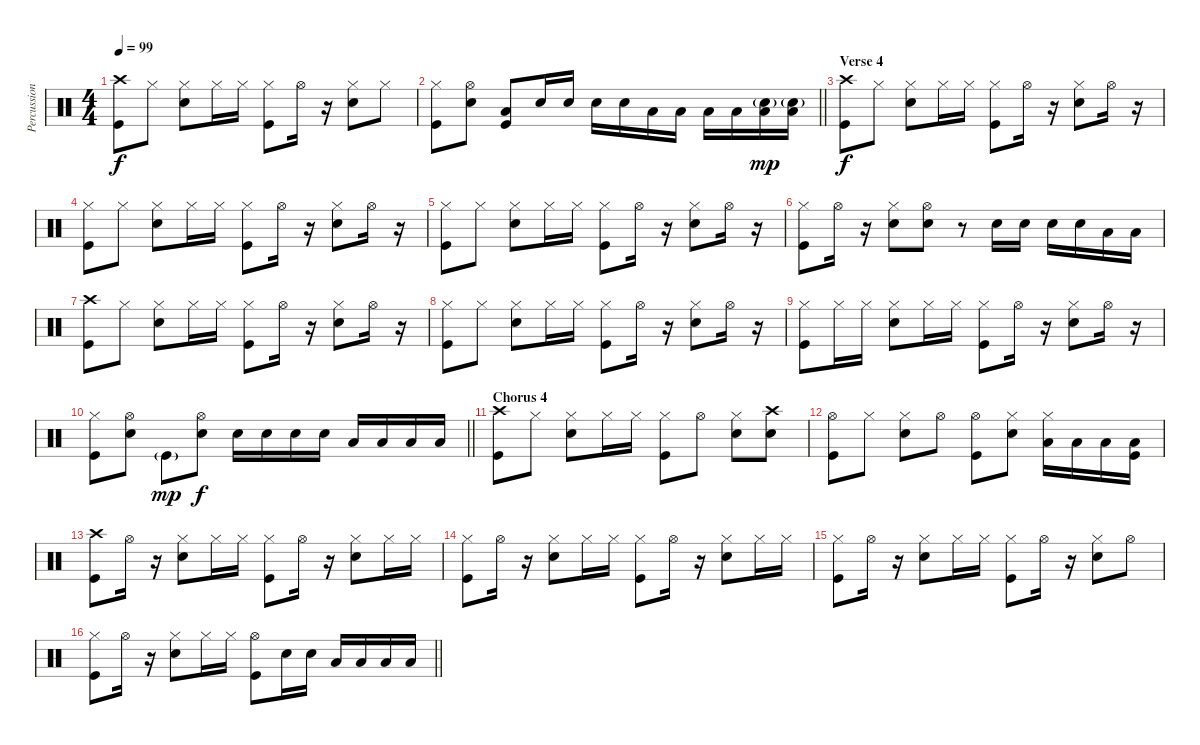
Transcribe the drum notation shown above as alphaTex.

\track ("Percussion" "Percussion") {instrument percussion}
\staff {score}
\articulation defaults
\ts (4 4)
\tempo 99
\clef neutral
\ks c
("Crash high (hit)" "Kick (hit)").8{dy f} "Hi-Hat (closed)".8 ("Hi-Hat (closed)" "Snare (hit) 2").8 "Hi-Hat (closed)".16 "Hi-Hat (closed)".16 ("Hi-Hat (closed)" "Kick (hit)").8 "Hi-Hat (open)".16 r.16 ("Hi-Hat (closed)" "Snare (hit) 2").8 "Hi-Hat (closed)".8 |
\barLineRight lightlight
("Hi-Hat (closed)" "Kick (hit)").8 ("Hi-Hat (open)" "Snare (hit) 2").8 ("Low Tom (hit)" "Kick (hit)").8 "Snare (hit) 2".16 "Snare (hit) 2".16 "Snare (hit) 2".16 "Snare (hit) 2".16 "Low Tom (hit)".16 "Low Tom (hit)".16 "Low Tom (hit)".16 "Low Tom (hit)".16 ("Low Tom (hit)" "Snare (hit) 2"{g}).16{dy mp} ("Low Tom (hit)" "Snare (hit) 2"{g}).16 |
\section ("" "Verse 4")
("Crash high (hit)" "Kick (hit)").8{dy f} "Hi-Hat (closed)".8 ("Hi-Hat (closed)" "Snare (hit) 2").8 "Hi-Hat (closed)".16 "Hi-Hat (closed)".16 ("Hi-Hat (closed)" "Kick (hit)").8 "Hi-Hat (open)".16 r.16 ("Hi-Hat (closed)" "Snare (hit) 2").8 "Hi-Hat (open)".16 r.16 |
("Hi-Hat (closed)" "Kick (hit)").8 "Hi-Hat (closed)".8 ("Hi-Hat (closed)" "Snare (hit) 2").8 "Hi-Hat (closed)".16 "Hi-Hat (closed)".16 ("Hi-Hat (closed)" "Kick (hit)").8 "Hi-Hat (open)".16 r.16 ("Hi-Hat (closed)" "Snare (hit) 2").8 "Hi-Hat (open)".16 r.16 |
("Hi-Hat (closed)" "Kick (hit)").8 "Hi-Hat (closed)".8 ("Hi-Hat (closed)" "Snare (hit) 2").8 "Hi-Hat (closed)".16 "Hi-Hat (closed)".16 ("Hi-Hat (closed)" "Kick (hit)").8 "Hi-Hat (open)".16 r.16 ("Hi-Hat (closed)" "Snare (hit) 2").8 "Hi-Hat (open)".16 r.16 |
("Hi-Hat (closed)" "Kick (hit)").8 "Hi-Hat (open)".16 r.16 ("Hi-Hat (closed)" "Snare (hit) 2").8 ("Hi-Hat (open)" "Snare (hit) 2").8 r.8 "Snare (hit) 2".16 "Snare (hit) 2".16 "Snare (hit) 2".16 "Snare (hit) 2".16 "Low Tom (hit)".16 "Low Tom (hit)".16 |
("Crash high (hit)" "Kick (hit)").8 "Hi-Hat (closed)".8 ("Hi-Hat (closed)" "Snare (hit) 2").8 "Hi-Hat (closed)".16 "Hi-Hat (closed)".16 ("Hi-Hat (closed)" "Kick (hit)").8 "Hi-Hat (open)".16 r.16 ("Hi-Hat (closed)" "Snare (hit) 2").8 "Hi-Hat (open)".16 r.16 |
("Hi-Hat (closed)" "Kick (hit)").8 "Hi-Hat (closed)".8 ("Hi-Hat (closed)" "Snare (hit) 2").8 "Hi-Hat (closed)".16 "Hi-Hat (closed)".16 ("Hi-Hat (closed)" "Kick (hit)").8 "Hi-Hat (open)".16 r.16 ("Hi-Hat (closed)" "Snare (hit) 2").8 "Hi-Hat (open)".16 r.16 |
("Hi-Hat (closed)" "Kick (hit)").8 "Hi-Hat (closed)".16 "Hi-Hat (closed)".16 ("Hi-Hat (closed)" "Snare (hit) 2").8 "Hi-Hat (closed)".16 "Hi-Hat (closed)".16 ("Hi-Hat (closed)" "Kick (hit)").8 "Hi-Hat (open)".16 r.16 ("Hi-Hat (closed)" "Snare (hit) 2").8 "Hi-Hat (open)".16 r.16 |
\barLineRight lightlight
("Hi-Hat (closed)" "Kick (hit)").8 ("Hi-Hat (open)" "Snare (hit) 2").8 "Kick (hit)"{g}.8{dy mp} ("Hi-Hat (open)" "Snare (hit) 2").8{dy f} "Snare (hit) 2".16 "Snare (hit) 2".16 "Snare (hit) 2".16 "Snare (hit) 2".16 "Low Tom (hit)".16 "Low Tom (hit)".16 "Low Tom (hit)".16 "Low Tom (hit)".16 |
\section ("" "Chorus 4")
("Crash high (hit)" "Kick (hit)").8 "Hi-Hat (closed)".8 ("Hi-Hat (closed)" "Snare (hit) 2").8 "Hi-Hat (closed)".16 "Hi-Hat (closed)".16 ("Hi-Hat (closed)" "Kick (hit)").8 "Hi-Hat (open)".8 ("Hi-Hat (closed)" "Snare (hit) 2").8 ("Crash high (hit)" "Snare (hit) 2").8 |
("Hi-Hat (open)" "Kick (hit)").8 "Hi-Hat (closed)".8 ("Hi-Hat (closed)" "Snare (hit) 2").8 "Hi-Hat (open)".8 ("Hi-Hat (open)" "Kick (hit)").8 ("Hi-Hat (closed)" "Snare (hit) 2").8 ("Hi-Hat (closed)" "Low Tom (hit)").16 "Low Tom (hit)".16 "Low Tom (hit)".16 ("Low Tom (hit)" "Kick (hit)").16 |
("Crash high (hit)" "Kick (hit)").8 "Hi-Hat (open)".16 r.16 ("Hi-Hat (closed)" "Snare (hit) 2").8 "Hi-Hat (closed)".16 "Hi-Hat (closed)".16 ("Hi-Hat (closed)" "Kick (hit)").8 "Hi-Hat (open)".16 r.16 ("Hi-Hat (closed)" "Snare (hit) 2").8 "Hi-Hat (closed)".16 "Hi-Hat (closed)".16 |
("Hi-Hat (closed)" "Kick (hit)").8 "Hi-Hat (open)".16 r.16 ("Hi-Hat (closed)" "Snare (hit) 2").8 "Hi-Hat (closed)".16 "Hi-Hat (closed)".16 ("Hi-Hat (closed)" "Kick (hit)").8 "Hi-Hat (open)".16 r.16 ("Hi-Hat (closed)" "Snare (hit) 2").8 "Hi-Hat (closed)".16 "Hi-Hat (closed)".16 |
("Hi-Hat (closed)" "Kick (hit)").8 "Hi-Hat (open)".16 r.16 ("Hi-Hat (closed)" "Snare (hit) 2").8 "Hi-Hat (closed)".16 "Hi-Hat (closed)".16 ("Hi-Hat (closed)" "Kick (hit)").8 "Hi-Hat (open)".16 r.16 ("Hi-Hat (closed)" "Snare (hit) 2").8 "Hi-Hat (open)".8 |
\barLineRight lightlight
("Hi-Hat (closed)" "Kick (hit)").8 "Hi-Hat (open)".16 r.16 ("Hi-Hat (closed)" "Snare (hit) 2").8 "Hi-Hat (closed)".16 "Hi-Hat (closed)".16 ("Hi-Hat (open)" "Kick (hit)").8 "Snare (hit) 2".16 "Snare (hit) 2".16 "Low Tom (hit)".16 "Low Tom (hit)".16 "Low Tom (hit)".16 "Low Tom (hit)".16
